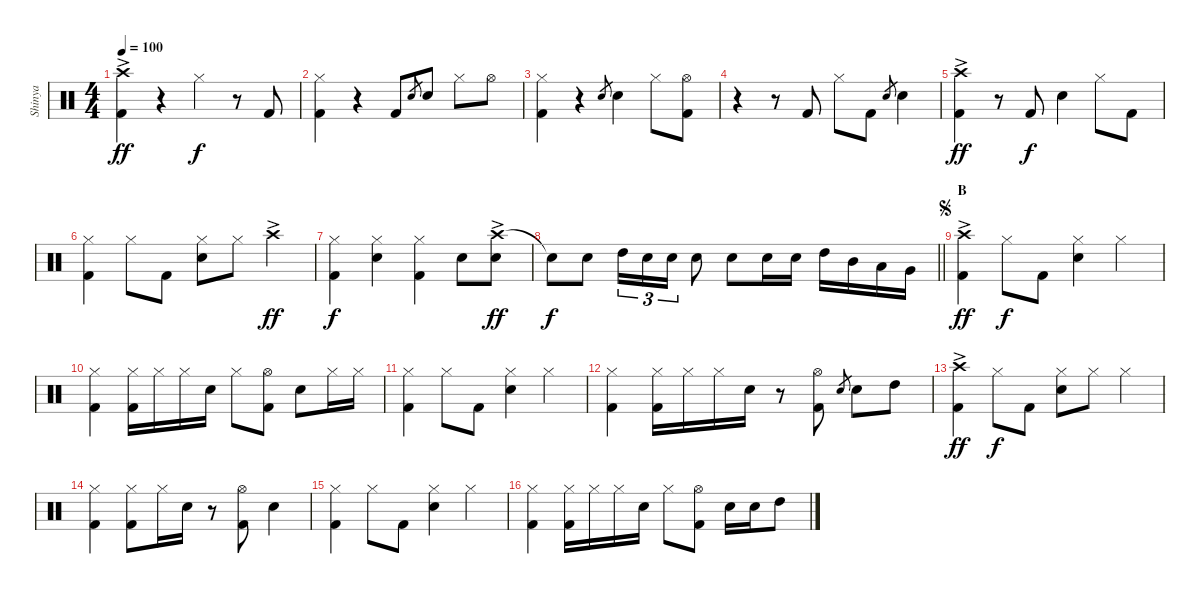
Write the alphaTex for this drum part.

\track ("Shinya" "Shinya") {instrument percussion}
\staff {score}
\articulation defaults
\ts (4 4)
\tempo 100
\clef neutral
\ks c
("Crash high (hit)"{ac} "Kick (hit) 2").4{dy ff} r.4 "Hi-Hat (closed)".4{dy f} r.8 "Kick (hit) 2".8 |
("Hi-Hat (closed)" "Kick (hit) 2").4 r.4 "Kick (hit) 2".8 "Snare (hit) 2".8{gr} "Snare (hit) 2".8 "Hi-Hat (closed)".8 "Hi-Hat (open)".8 |
("Hi-Hat (closed)" "Kick (hit) 2").4 r.4 "Snare (hit) 2"{h}.8{gr} "Snare (hit) 2".4 "Hi-Hat (closed)".8 ("Hi-Hat (open)" "Kick (hit) 2").8 |
r.4 r.8 "Kick (hit) 2".8 "Hi-Hat (closed)".8 "Kick (hit) 2".8 "Snare (hit) 2"{h}.8{gr} "Snare (hit) 2".4 |
("Crash high (hit)"{ac} "Kick (hit) 2").4{dy ff} r.8 "Kick (hit) 2".8{dy f} "Snare (hit) 2".4 "Hi-Hat (closed)".8 "Kick (hit) 2".8 |
("Hi-Hat (closed)" "Kick (hit) 2").4 "Hi-Hat (closed)".8 "Kick (hit) 2".8 ("Hi-Hat (closed)" "Snare (hit) 2").8 "Hi-Hat (closed)".8 "Crash high (hit)"{ac}.4{dy ff} |
("Hi-Hat (closed)" "Kick (hit) 2").4{dy f} ("Hi-Hat (closed)" "Snare (hit) 2").4 ("Hi-Hat (closed)" "Kick (hit) 2").4 "Snare (hit) 2".8 ("Crash high (hit)"{ac} "Snare (hit) 2").8{dy ff} |
\barLineRight lightlight "Snare (hit)"{t}.8{dy f} "Snare (hit) 2".8 "High Tom (hit)".16{tu (3 2)} "Snare (hit) 2".16{tu (3 2)} "Snare (hit) 2".16{tu (3 2)} "Snare (hit) 2".8 "Snare (hit) 2".8 "Snare (hit) 2".16 "Snare (hit) 2".16 "High Tom (hit)".16 "Mid Tom (hit)".16 "Low Tom (hit)".16 "Very Low Tom (hit)".16
|
\section ("" "B")
\jump segno
("Crash high (hit)"{ac} "Kick (hit) 2").4{dy ff} "Hi-Hat (closed)".8{dy f} "Kick (hit) 2".8 ("Hi-Hat (closed)" "Snare (hit) 2").4 "Hi-Hat (closed)".4 |
("Hi-Hat (closed)" "Kick (hit) 2").4 ("Hi-Hat (closed)" "Kick (hit) 2").16 "Hi-Hat (closed)".16 "Hi-Hat (closed)".16 "Snare (hit) 2".16 "Hi-Hat (closed)".8 ("Hi-Hat (open)" "Kick (hit) 2").8 "Snare (hit) 2".8 "Hi-Hat (closed)".16 "Hi-Hat (closed)".16 |
("Hi-Hat (closed)" "Kick (hit) 2").4 "Hi-Hat (closed)".8 "Kick (hit) 2".8 ("Hi-Hat (closed)" "Snare (hit) 2").4 "Hi-Hat (closed)".4 |
("Hi-Hat (closed)" "Kick (hit) 2").4 ("Hi-Hat (closed)" "Kick (hit) 2").16 "Hi-Hat (closed)".16 "Hi-Hat (closed)".16 "Snare (hit) 2".16 r.8 ("Hi-Hat (open)" "Kick (hit) 2").8 "Snare (hit) 2"{h}.8{gr} "Snare (hit) 2".8 "High Tom (hit)".8 |
("Crash high (hit)"{ac} "Kick (hit) 2").4{dy ff} "Hi-Hat (closed)".8{dy f} "Kick (hit) 2".8 ("Hi-Hat (closed)" "Snare (hit) 2").8 "Hi-Hat (closed)".8 "Hi-Hat (closed)".4 |
("Hi-Hat (closed)" "Kick (hit) 2").4 ("Hi-Hat (closed)" "Kick (hit) 2").8 "Hi-Hat (closed)".16 "Snare (hit) 2".16 r.8 ("Hi-Hat (open)" "Kick (hit) 2").8 "Snare (hit) 2".4 |
("Hi-Hat (closed)" "Kick (hit) 2").4 "Hi-Hat (closed)".8 "Kick (hit) 2".8 ("Hi-Hat (closed)" "Snare (hit) 2").4 "Hi-Hat (closed)".4 |
("Hi-Hat (closed)" "Kick (hit) 2").4 ("Hi-Hat (closed)" "Kick (hit) 2").16 "Hi-Hat (closed)".16 "Hi-Hat (closed)".16 "Snare (hit) 2".16 "Hi-Hat (closed)".8 ("Hi-Hat (open)" "Kick (hit) 2").8 "Snare (hit) 2".16 "Snare (hit) 2".16 "High Tom (hit)".8
